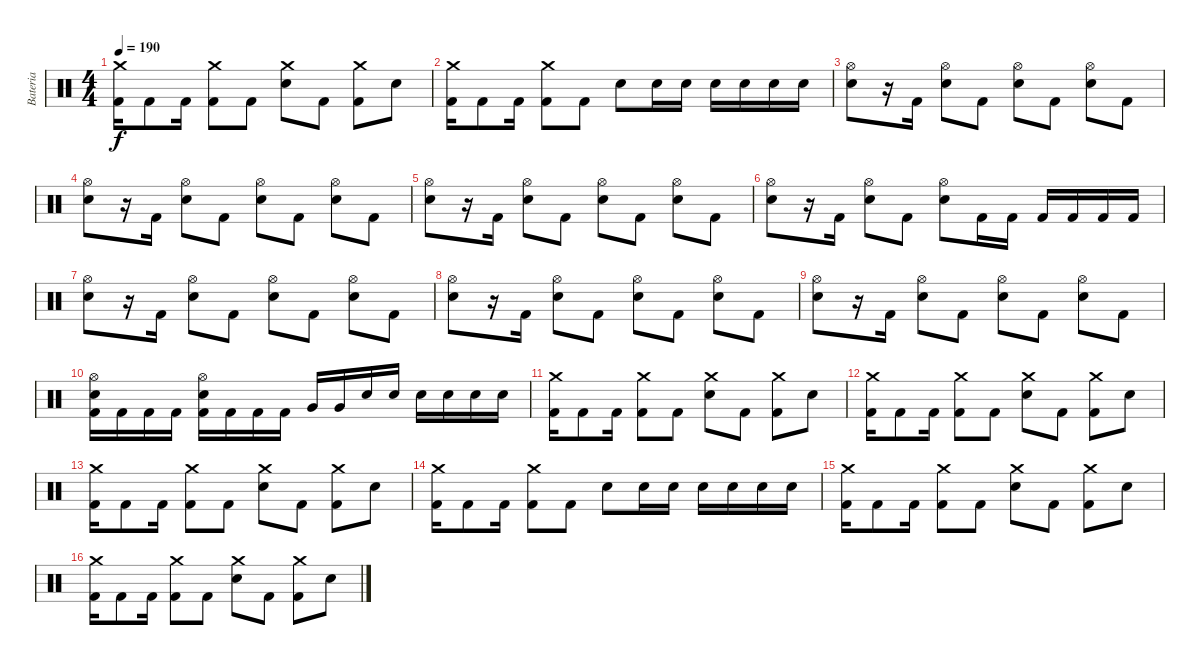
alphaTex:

\track ("Bateria" "Bateria") {instrument percussion}
\staff {score}
\articulation defaults
\ts (4 4)
\tempo 190
\clef neutral
\ks c
("Crash medium (hit)" "Kick (hit) 2").16{dy f} "Kick (hit) 2".8 "Kick (hit) 2".16 ("Crash medium (hit)" "Kick (hit) 2").8 "Kick (hit) 2".8 ("Crash medium (hit)" "Electric Snare (hit)").8 "Kick (hit) 2".8 ("Crash medium (hit)" "Kick (hit) 2").8 "Electric Snare (hit)".8 |
("Crash medium (hit)" "Kick (hit) 2").16 "Kick (hit) 2".8 "Kick (hit) 2".16 ("Crash medium (hit)" "Kick (hit) 2").8 "Kick (hit) 2".8 "Electric Snare (hit)".8 "Electric Snare (hit)".16 "Electric Snare (hit)".16 "Electric Snare (hit)".16 "Electric Snare (hit)".16 "Electric Snare (hit)".16 "Electric Snare (hit)".16 |
("Hi-Hat (open)" "Electric Snare (hit)").8 r.16 "Kick (hit) 2".16 ("Hi-Hat (open)" "Electric Snare (hit)").8 "Kick (hit) 2".8 ("Hi-Hat (open)" "Electric Snare (hit)").8 "Kick (hit) 2".8 ("Hi-Hat (open)" "Electric Snare (hit)").8 "Kick (hit) 2".8 |
("Hi-Hat (open)" "Electric Snare (hit)").8 r.16 "Kick (hit) 2".16 ("Hi-Hat (open)" "Electric Snare (hit)").8 "Kick (hit) 2".8 ("Hi-Hat (open)" "Electric Snare (hit)").8 "Kick (hit) 2".8 ("Hi-Hat (open)" "Electric Snare (hit)").8 "Kick (hit) 2".8 |
("Hi-Hat (open)" "Electric Snare (hit)").8 r.16 "Kick (hit) 2".16 ("Hi-Hat (open)" "Electric Snare (hit)").8 "Kick (hit) 2".8 ("Hi-Hat (open)" "Electric Snare (hit)").8 "Kick (hit) 2".8 ("Hi-Hat (open)" "Electric Snare (hit)").8 "Kick (hit) 2".8 |
("Hi-Hat (open)" "Electric Snare (hit)").8 r.16 "Kick (hit) 2".16 ("Hi-Hat (open)" "Electric Snare (hit)").8 "Kick (hit) 2".8 ("Hi-Hat (open)" "Electric Snare (hit)").8 "Kick (hit) 2".16 "Kick (hit) 2".16 "Kick (hit) 2".16 "Kick (hit) 2".16 "Kick (hit) 2".16 "Kick (hit) 2".16 |
("Hi-Hat (open)" "Electric Snare (hit)").8 r.16 "Kick (hit) 2".16 ("Hi-Hat (open)" "Electric Snare (hit)").8 "Kick (hit) 2".8 ("Hi-Hat (open)" "Electric Snare (hit)").8 "Kick (hit) 2".8 ("Hi-Hat (open)" "Electric Snare (hit)").8 "Kick (hit) 2".8 |
("Hi-Hat (open)" "Electric Snare (hit)").8 r.16 "Kick (hit) 2".16 ("Hi-Hat (open)" "Electric Snare (hit)").8 "Kick (hit) 2".8 ("Hi-Hat (open)" "Electric Snare (hit)").8 "Kick (hit) 2".8 ("Hi-Hat (open)" "Electric Snare (hit)").8 "Kick (hit) 2".8 |
("Hi-Hat (open)" "Electric Snare (hit)").8 r.16 "Kick (hit) 2".16 ("Hi-Hat (open)" "Electric Snare (hit)").8 "Kick (hit) 2".8 ("Hi-Hat (open)" "Electric Snare (hit)").8 "Kick (hit) 2".8 ("Hi-Hat (open)" "Electric Snare (hit)").8 "Kick (hit) 2".8 |
("Hi-Hat (open)" "Electric Snare (hit)" "Kick (hit) 2").16 "Kick (hit) 2".16 "Kick (hit) 2".16 "Kick (hit) 2".16 ("Hi-Hat (open)" "Electric Snare (hit)" "Kick (hit) 2").16 "Kick (hit) 2".16 "Kick (hit) 2".16 "Kick (hit) 2".16 "Very Low Tom (hit)".16 "Very Low Tom (hit)".16 "Electric Snare (hit)".16 "Electric Snare (hit)".16 "Electric Snare (hit)".16 "Electric Snare (hit)".16 "Electric Snare (hit)".16 "Electric Snare (hit)".16 |
("Crash medium (hit)" "Kick (hit) 2").16 "Kick (hit) 2".8 "Kick (hit) 2".16 ("Crash medium (hit)" "Kick (hit) 2").8 "Kick (hit) 2".8 ("Crash medium (hit)" "Electric Snare (hit)").8 "Kick (hit) 2".8 ("Crash medium (hit)" "Kick (hit) 2").8 "Electric Snare (hit)".8 |
("Crash medium (hit)" "Kick (hit) 2").16 "Kick (hit) 2".8 "Kick (hit) 2".16 ("Crash medium (hit)" "Kick (hit) 2").8 "Kick (hit) 2".8 ("Crash medium (hit)" "Electric Snare (hit)").8 "Kick (hit) 2".8 ("Crash medium (hit)" "Kick (hit) 2").8 "Electric Snare (hit)".8 |
("Crash medium (hit)" "Kick (hit) 2").16 "Kick (hit) 2".8 "Kick (hit) 2".16 ("Crash medium (hit)" "Kick (hit) 2").8 "Kick (hit) 2".8 ("Crash medium (hit)" "Electric Snare (hit)").8 "Kick (hit) 2".8 ("Crash medium (hit)" "Kick (hit) 2").8 "Electric Snare (hit)".8 |
("Crash medium (hit)" "Kick (hit) 2").16 "Kick (hit) 2".8 "Kick (hit) 2".16 ("Crash medium (hit)" "Kick (hit) 2").8 "Kick (hit) 2".8 "Electric Snare (hit)".8 "Electric Snare (hit)".16 "Electric Snare (hit)".16 "Electric Snare (hit)".16 "Electric Snare (hit)".16 "Electric Snare (hit)".16 "Electric Snare (hit)".16 |
("Crash medium (hit)" "Kick (hit) 2").16 "Kick (hit) 2".8 "Kick (hit) 2".16 ("Crash medium (hit)" "Kick (hit) 2").8 "Kick (hit) 2".8 ("Crash medium (hit)" "Electric Snare (hit)").8 "Kick (hit) 2".8 ("Crash medium (hit)" "Kick (hit) 2").8 "Electric Snare (hit)".8 |
("Crash medium (hit)" "Kick (hit) 2").16 "Kick (hit) 2".8 "Kick (hit) 2".16 ("Crash medium (hit)" "Kick (hit) 2").8 "Kick (hit) 2".8 ("Crash medium (hit)" "Electric Snare (hit)").8 "Kick (hit) 2".8 ("Crash medium (hit)" "Kick (hit) 2").8 "Electric Snare (hit)".8
